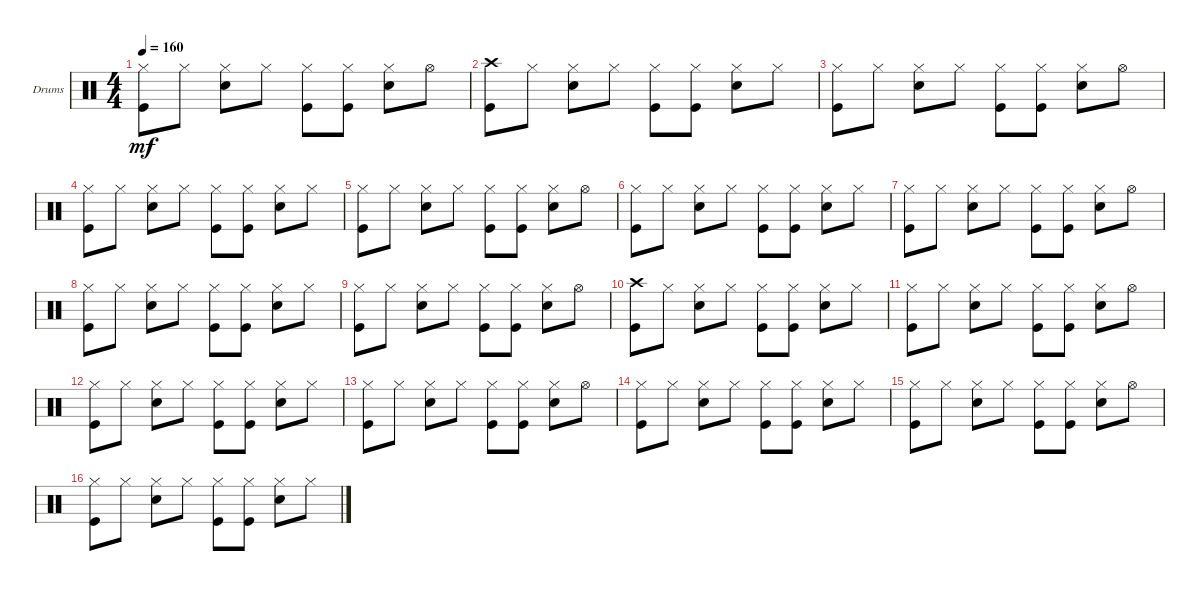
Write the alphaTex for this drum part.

\defaultSystemsLayout 4
\bracketExtendMode groupsimilarinstruments
\firstSystemTrackNameOrientation horizontal
\otherSystemsTrackNameOrientation horizontal
\track ("Drumkit" "Drums") {instrument percussion}
\staff {score}
\articulation defaults
\ts (4 4)
\tempo 160
\clef neutral
\ks c
("Kick (hit)" "Hi-Hat (closed)").8{dy mf} "Hi-Hat (closed)".8 ("Snare (hit) 2" "Hi-Hat (closed)").8 "Hi-Hat (closed)".8 ("Hi-Hat (closed)" "Kick (hit)").8 ("Kick (hit)" "Hi-Hat (closed)").8 ("Snare (hit) 2" "Hi-Hat (closed)").8 "Hi-Hat (open)".8 |
("Kick (hit)" "Crash high (hit)").8 "Hi-Hat (closed)".8 ("Snare (hit) 2" "Hi-Hat (closed)").8 "Hi-Hat (closed)".8 ("Hi-Hat (closed)" "Kick (hit)").8 ("Kick (hit)" "Hi-Hat (closed)").8 ("Snare (hit) 2" "Hi-Hat (closed)").8 "Hi-Hat (closed)".8 |
("Kick (hit)" "Hi-Hat (closed)").8 "Hi-Hat (closed)".8 ("Snare (hit) 2" "Hi-Hat (closed)").8 "Hi-Hat (closed)".8 ("Hi-Hat (closed)" "Kick (hit)").8 ("Kick (hit)" "Hi-Hat (closed)").8 ("Snare (hit) 2" "Hi-Hat (closed)").8 "Hi-Hat (open)".8 |
("Kick (hit)" "Hi-Hat (closed)").8 "Hi-Hat (closed)".8 ("Snare (hit) 2" "Hi-Hat (closed)").8 "Hi-Hat (closed)".8 ("Hi-Hat (closed)" "Kick (hit)").8 ("Kick (hit)" "Hi-Hat (closed)").8 ("Snare (hit) 2" "Hi-Hat (closed)").8 "Hi-Hat (closed)".8 |
("Kick (hit)" "Hi-Hat (closed)").8 "Hi-Hat (closed)".8 ("Snare (hit) 2" "Hi-Hat (closed)").8 "Hi-Hat (closed)".8 ("Hi-Hat (closed)" "Kick (hit)").8 ("Kick (hit)" "Hi-Hat (closed)").8 ("Snare (hit) 2" "Hi-Hat (closed)").8 "Hi-Hat (open)".8 |
("Kick (hit)" "Hi-Hat (closed)").8 "Hi-Hat (closed)".8 ("Snare (hit) 2" "Hi-Hat (closed)").8 "Hi-Hat (closed)".8 ("Hi-Hat (closed)" "Kick (hit)").8 ("Kick (hit)" "Hi-Hat (closed)").8 ("Snare (hit) 2" "Hi-Hat (closed)").8 "Hi-Hat (closed)".8 |
("Kick (hit)" "Hi-Hat (closed)").8 "Hi-Hat (closed)".8 ("Snare (hit) 2" "Hi-Hat (closed)").8 "Hi-Hat (closed)".8 ("Hi-Hat (closed)" "Kick (hit)").8 ("Kick (hit)" "Hi-Hat (closed)").8 ("Snare (hit) 2" "Hi-Hat (closed)").8 "Hi-Hat (open)".8 |
("Kick (hit)" "Hi-Hat (closed)").8 "Hi-Hat (closed)".8 ("Snare (hit) 2" "Hi-Hat (closed)").8 "Hi-Hat (closed)".8 ("Hi-Hat (closed)" "Kick (hit)").8 ("Kick (hit)" "Hi-Hat (closed)").8 ("Snare (hit) 2" "Hi-Hat (closed)").8 "Hi-Hat (closed)".8 |
("Kick (hit)" "Hi-Hat (closed)").8 "Hi-Hat (closed)".8 ("Snare (hit) 2" "Hi-Hat (closed)").8 "Hi-Hat (closed)".8 ("Hi-Hat (closed)" "Kick (hit)").8 ("Kick (hit)" "Hi-Hat (closed)").8 ("Snare (hit) 2" "Hi-Hat (closed)").8 "Hi-Hat (open)".8 |
("Kick (hit)" "Crash high (hit)").8 "Hi-Hat (closed)".8 ("Snare (hit) 2" "Hi-Hat (closed)").8 "Hi-Hat (closed)".8 ("Hi-Hat (closed)" "Kick (hit)").8 ("Kick (hit)" "Hi-Hat (closed)").8 ("Snare (hit) 2" "Hi-Hat (closed)").8 "Hi-Hat (closed)".8 |
("Kick (hit)" "Hi-Hat (closed)").8 "Hi-Hat (closed)".8 ("Snare (hit) 2" "Hi-Hat (closed)").8 "Hi-Hat (closed)".8 ("Hi-Hat (closed)" "Kick (hit)").8 ("Kick (hit)" "Hi-Hat (closed)").8 ("Snare (hit) 2" "Hi-Hat (closed)").8 "Hi-Hat (open)".8 |
("Kick (hit)" "Hi-Hat (closed)").8 "Hi-Hat (closed)".8 ("Snare (hit) 2" "Hi-Hat (closed)").8 "Hi-Hat (closed)".8 ("Hi-Hat (closed)" "Kick (hit)").8 ("Kick (hit)" "Hi-Hat (closed)").8 ("Snare (hit) 2" "Hi-Hat (closed)").8 "Hi-Hat (closed)".8 |
("Kick (hit)" "Hi-Hat (closed)").8 "Hi-Hat (closed)".8 ("Snare (hit) 2" "Hi-Hat (closed)").8 "Hi-Hat (closed)".8 ("Hi-Hat (closed)" "Kick (hit)").8 ("Kick (hit)" "Hi-Hat (closed)").8 ("Snare (hit) 2" "Hi-Hat (closed)").8 "Hi-Hat (open)".8 |
("Kick (hit)" "Hi-Hat (closed)").8 "Hi-Hat (closed)".8 ("Snare (hit) 2" "Hi-Hat (closed)").8 "Hi-Hat (closed)".8 ("Hi-Hat (closed)" "Kick (hit)").8 ("Kick (hit)" "Hi-Hat (closed)").8 ("Snare (hit) 2" "Hi-Hat (closed)").8 "Hi-Hat (closed)".8 |
("Kick (hit)" "Hi-Hat (closed)").8 "Hi-Hat (closed)".8 ("Snare (hit) 2" "Hi-Hat (closed)").8 "Hi-Hat (closed)".8 ("Hi-Hat (closed)" "Kick (hit)").8 ("Kick (hit)" "Hi-Hat (closed)").8 ("Snare (hit) 2" "Hi-Hat (closed)").8 "Hi-Hat (open)".8 |
("Kick (hit)" "Hi-Hat (closed)").8 "Hi-Hat (closed)".8 ("Snare (hit) 2" "Hi-Hat (closed)").8 "Hi-Hat (closed)".8 ("Hi-Hat (closed)" "Kick (hit)").8 ("Kick (hit)" "Hi-Hat (closed)").8 ("Snare (hit) 2" "Hi-Hat (closed)").8 "Hi-Hat (closed)".8
